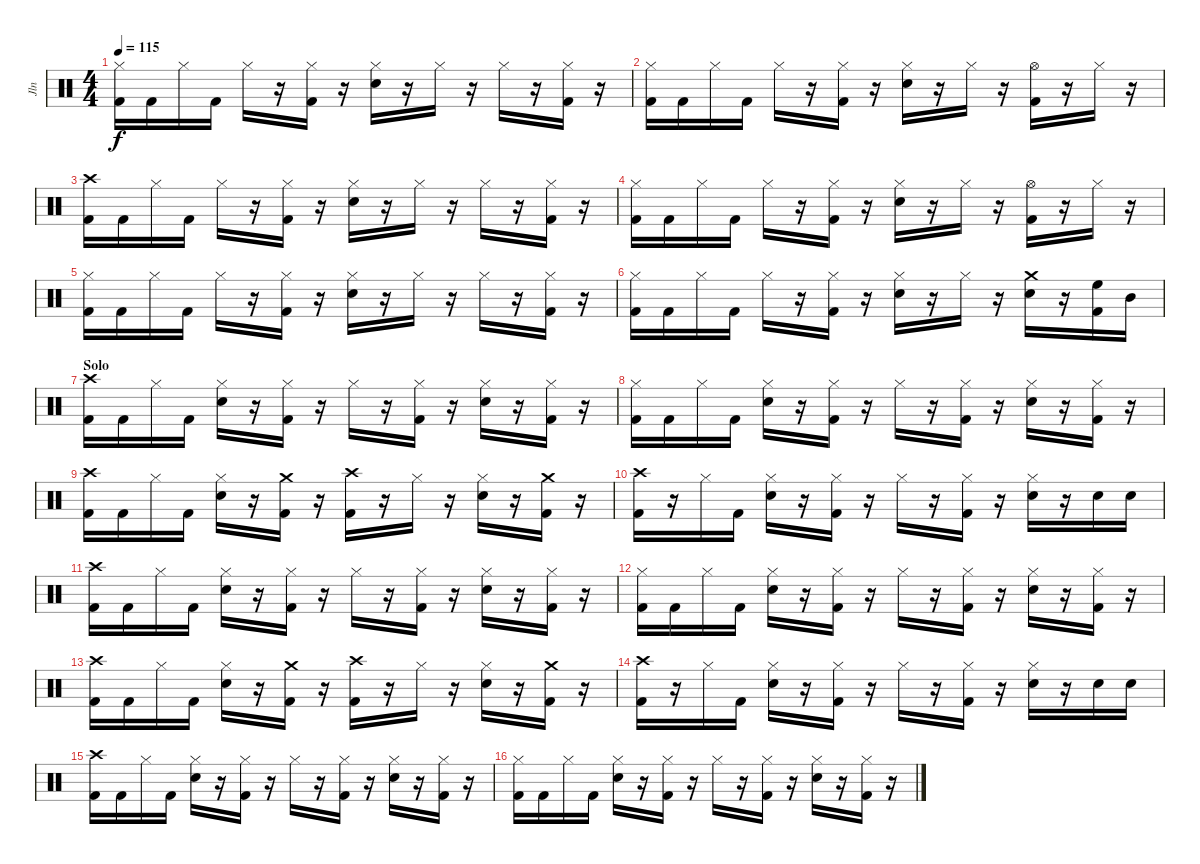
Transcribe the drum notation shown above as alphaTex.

\track ("Jln" "Jln") {instrument percussion}
\staff {score}
\articulation defaults
\ts (4 4)
\tempo 115
\clef neutral
\ks c
("Hi-Hat (closed)" "Kick (hit) 2").16{dy f} "Kick (hit) 2".16 "Hi-Hat (closed)".16 "Kick (hit) 2".16 "Hi-Hat (closed)".16 r.16 ("Hi-Hat (closed)" "Kick (hit) 2").16 r.16 ("Hi-Hat (closed)" "Electric Snare (hit)").16 r.16 "Hi-Hat (closed)".16 r.16 "Hi-Hat (closed)".16 r.16 ("Hi-Hat (closed)" "Kick (hit) 2").16 r.16 |
("Hi-Hat (closed)" "Kick (hit) 2").16 "Kick (hit) 2".16 "Hi-Hat (closed)".16 "Kick (hit) 2".16 "Hi-Hat (closed)".16 r.16 ("Hi-Hat (closed)" "Kick (hit) 2").16 r.16 ("Hi-Hat (closed)" "Electric Snare (hit)").16 r.16 "Hi-Hat (closed)".16 r.16 ("Hi-Hat (open)" "Kick (hit) 2").16 r.16 "Hi-Hat (closed)".16 r.16 |
("Crash high (hit)" "Kick (hit) 2").16 "Kick (hit) 2".16 "Hi-Hat (closed)".16 "Kick (hit) 2".16 "Hi-Hat (closed)".16 r.16 ("Hi-Hat (closed)" "Kick (hit) 2").16 r.16 ("Hi-Hat (closed)" "Electric Snare (hit)").16 r.16 "Hi-Hat (closed)".16 r.16 "Hi-Hat (closed)".16 r.16 ("Hi-Hat (closed)" "Kick (hit) 2").16 r.16 |
("Hi-Hat (closed)" "Kick (hit) 2").16 "Kick (hit) 2".16 "Hi-Hat (closed)".16 "Kick (hit) 2".16 "Hi-Hat (closed)".16 r.16 ("Hi-Hat (closed)" "Kick (hit) 2").16 r.16 ("Hi-Hat (closed)" "Electric Snare (hit)").16 r.16 "Hi-Hat (closed)".16 r.16 ("Hi-Hat (open)" "Kick (hit) 2").16 r.16 "Hi-Hat (closed)".16 r.16 |
("Hi-Hat (closed)" "Kick (hit) 2").16 "Kick (hit) 2".16 "Hi-Hat (closed)".16 "Kick (hit) 2".16 "Hi-Hat (closed)".16 r.16 ("Hi-Hat (closed)" "Kick (hit) 2").16 r.16 ("Hi-Hat (closed)" "Electric Snare (hit)").16 r.16 "Hi-Hat (closed)".16 r.16 "Hi-Hat (closed)".16 r.16 ("Hi-Hat (closed)" "Kick (hit) 2").16 r.16 |
("Hi-Hat (closed)" "Kick (hit) 2").16 "Kick (hit) 2".16 "Hi-Hat (closed)".16 "Kick (hit) 2".16 "Hi-Hat (closed)".16 r.16 ("Hi-Hat (closed)" "Kick (hit) 2").16 r.16 ("Hi-Hat (closed)" "Electric Snare (hit)").16 r.16 "Hi-Hat (closed)".16 r.16 ("Crash medium (hit)" "Electric Snare (hit)").16 r.16 ("High Floor Tom (hit)" "Kick (hit) 2").16 "Mid Tom (hit)".16 |
\section ("" "Solo")
("Crash high (hit)" "Kick (hit) 2").16 "Kick (hit) 2".16 "Hi-Hat (closed)".16 "Kick (hit) 2".16 ("Hi-Hat (closed)" "Electric Snare (hit)").16 r.16 ("Hi-Hat (closed)" "Kick (hit) 2").16 r.16 "Hi-Hat (closed)".16 r.16 ("Hi-Hat (closed)" "Kick (hit) 2").16 r.16 ("Hi-Hat (closed)" "Electric Snare (hit)").16 r.16 ("Hi-Hat (closed)" "Kick (hit) 2").16 r.16 |
("Hi-Hat (closed)" "Kick (hit) 2").16 "Kick (hit) 2".16 "Hi-Hat (closed)".16 "Kick (hit) 2".16 ("Hi-Hat (closed)" "Electric Snare (hit)").16 r.16 ("Hi-Hat (closed)" "Kick (hit) 2").16 r.16 "Hi-Hat (closed)".16 r.16 ("Hi-Hat (closed)" "Kick (hit) 2").16 r.16 ("Hi-Hat (closed)" "Electric Snare (hit)").16 r.16 ("Hi-Hat (closed)" "Kick (hit) 2").16 r.16 |
("Crash high (hit)" "Kick (hit) 2").16 "Kick (hit) 2".16 "Hi-Hat (closed)".16 "Kick (hit) 2".16 ("Hi-Hat (closed)" "Electric Snare (hit)").16 r.16 ("Crash medium (hit)" "Kick (hit) 2").16 r.16 ("Crash high (hit)" "Kick (hit) 2").16 r.16 "Hi-Hat (closed)".16 r.16 ("Hi-Hat (closed)" "Electric Snare (hit)").16 r.16 ("Crash medium (hit)" "Kick (hit) 2").16 r.16 |
("Crash high (hit)" "Kick (hit) 2").16 r.16 "Hi-Hat (closed)".16 "Kick (hit) 2".16 ("Hi-Hat (closed)" "Electric Snare (hit)").16 r.16 ("Hi-Hat (closed)" "Kick (hit) 2").16 r.16 "Hi-Hat (closed)".16 r.16 ("Hi-Hat (closed)" "Kick (hit) 2").16 r.16 ("Hi-Hat (closed)" "Electric Snare (hit)").16 r.16 "Electric Snare (hit)".16 "Electric Snare (hit)".16 |
("Crash high (hit)" "Kick (hit) 2").16 "Kick (hit) 2".16 "Hi-Hat (closed)".16 "Kick (hit) 2".16 ("Hi-Hat (closed)" "Electric Snare (hit)").16 r.16 ("Hi-Hat (closed)" "Kick (hit) 2").16 r.16 "Hi-Hat (closed)".16 r.16 ("Hi-Hat (closed)" "Kick (hit) 2").16 r.16 ("Hi-Hat (closed)" "Electric Snare (hit)").16 r.16 ("Hi-Hat (closed)" "Kick (hit) 2").16 r.16 |
("Hi-Hat (closed)" "Kick (hit) 2").16 "Kick (hit) 2".16 "Hi-Hat (closed)".16 "Kick (hit) 2".16 ("Hi-Hat (closed)" "Electric Snare (hit)").16 r.16 ("Hi-Hat (closed)" "Kick (hit) 2").16 r.16 "Hi-Hat (closed)".16 r.16 ("Hi-Hat (closed)" "Kick (hit) 2").16 r.16 ("Hi-Hat (closed)" "Electric Snare (hit)").16 r.16 ("Hi-Hat (closed)" "Kick (hit) 2").16 r.16 |
("Crash high (hit)" "Kick (hit) 2").16 "Kick (hit) 2".16 "Hi-Hat (closed)".16 "Kick (hit) 2".16 ("Hi-Hat (closed)" "Electric Snare (hit)").16 r.16 ("Crash medium (hit)" "Kick (hit) 2").16 r.16 ("Crash high (hit)" "Kick (hit) 2").16 r.16 "Hi-Hat (closed)".16 r.16 ("Hi-Hat (closed)" "Electric Snare (hit)").16 r.16 ("Crash medium (hit)" "Kick (hit) 2").16 r.16 |
("Crash high (hit)" "Kick (hit) 2").16 r.16 "Hi-Hat (closed)".16 "Kick (hit) 2".16 ("Hi-Hat (closed)" "Electric Snare (hit)").16 r.16 ("Hi-Hat (closed)" "Kick (hit) 2").16 r.16 "Hi-Hat (closed)".16 r.16 ("Hi-Hat (closed)" "Kick (hit) 2").16 r.16 ("Hi-Hat (closed)" "Electric Snare (hit)").16 r.16 "Electric Snare (hit)".16 "Electric Snare (hit)".16 |
("Crash high (hit)" "Kick (hit) 2").16 "Kick (hit) 2".16 "Hi-Hat (closed)".16 "Kick (hit) 2".16 ("Hi-Hat (closed)" "Electric Snare (hit)").16 r.16 ("Hi-Hat (closed)" "Kick (hit) 2").16 r.16 "Hi-Hat (closed)".16 r.16 ("Hi-Hat (closed)" "Kick (hit) 2").16 r.16 ("Hi-Hat (closed)" "Electric Snare (hit)").16 r.16 ("Hi-Hat (closed)" "Kick (hit) 2").16 r.16 |
("Hi-Hat (closed)" "Kick (hit) 2").16 "Kick (hit) 2".16 "Hi-Hat (closed)".16 "Kick (hit) 2".16 ("Hi-Hat (closed)" "Electric Snare (hit)").16 r.16 ("Hi-Hat (closed)" "Kick (hit) 2").16 r.16 "Hi-Hat (closed)".16 r.16 ("Hi-Hat (closed)" "Kick (hit) 2").16 r.16 ("Hi-Hat (closed)" "Electric Snare (hit)").16 r.16 ("Hi-Hat (closed)" "Kick (hit) 2").16 r.16
